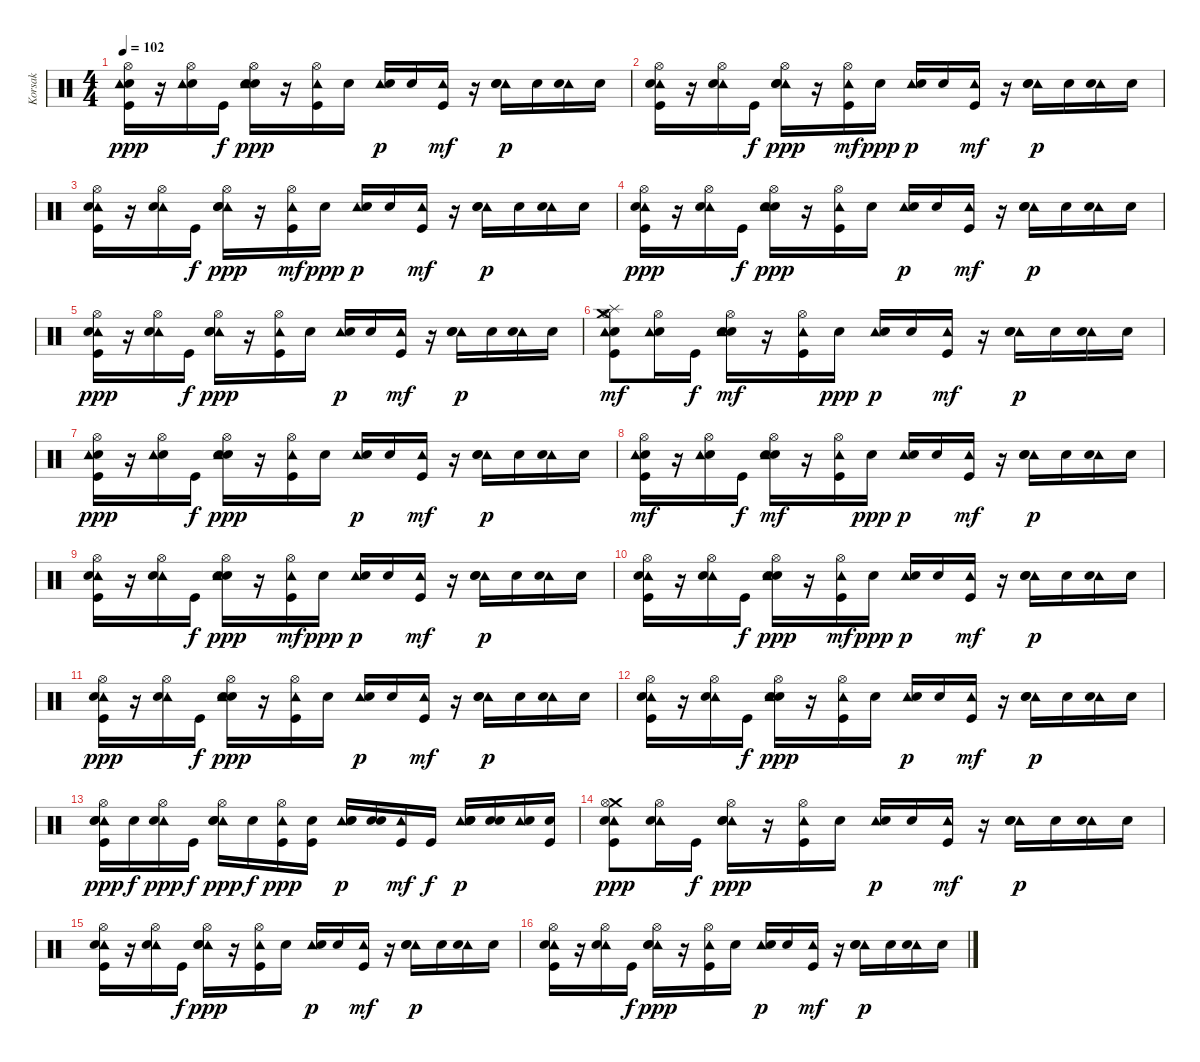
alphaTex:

\track ("Korsak" "Korsak") {instrument percussion}
\staff {score}
\articulation defaults
\ts (4 4)
\tempo 102
\clef neutral
\ks c
("Electric Snare (hit)" "Kick (hit)" "Tambourine (hit)" "Hi-Hat (open)").16{dy ppp} r.16 ("Electric Snare (hit)" "Tambourine (hit)" "Hi-Hat (open)").16 "Kick (hit)".16{dy f} ("Electric Snare (hit)" "Snare (hit) 2" "Tambourine (hit)" "Hi-Hat (open)").16{dy ppp} r.16 ("Kick (hit)" "Tambourine (hit)" "Hi-Hat (open)").16 "Electric Snare (hit)".16 ("Tambourine (hit)" "Electric Snare (hit)").16{dy p} "Electric Snare (hit)".16 ("Kick (hit)" "Tambourine (hit)").16{dy mf} r.16 ("Tambourine (hit)" "Electric Snare (hit)" "Snare (hit) 2").16{dy p} "Electric Snare (hit)".16 ("Tambourine (hit)" "Electric Snare (hit)").16 "Electric Snare (hit)".16 |
("Hi-Hat (open)" "Tambourine (hit)" "Electric Snare (hit)" "Kick (hit)").16 r.16 ("Hi-Hat (open)" "Tambourine (hit)" "Electric Snare (hit)").16 "Kick (hit)".16{dy f} ("Hi-Hat (open)" "Tambourine (hit)" "Electric Snare (hit)" "Snare (hit) 2").16{dy ppp} r.16 ("Hi-Hat (open)" "Tambourine (hit)" "Kick (hit)").16{dy mf} "Electric Snare (hit)".16{dy ppp} ("Tambourine (hit)" "Electric Snare (hit)").16{dy p} "Electric Snare (hit)".16 ("Tambourine (hit)" "Kick (hit)").16{dy mf} r.16 ("Tambourine (hit)" "Electric Snare (hit)" "Snare (hit) 2").16{dy p} "Electric Snare (hit)".16 ("Tambourine (hit)" "Electric Snare (hit)").16 "Electric Snare (hit)".16 |
("Hi-Hat (open)" "Tambourine (hit)" "Kick (hit)" "Electric Snare (hit)").16 r.16 ("Hi-Hat (open)" "Tambourine (hit)" "Electric Snare (hit)").16 "Kick (hit)".16{dy f} ("Hi-Hat (open)" "Tambourine (hit)" "Snare (hit) 2" "Electric Snare (hit)").16{dy ppp} r.16 ("Hi-Hat (open)" "Tambourine (hit)" "Kick (hit)").16{dy mf} "Electric Snare (hit)".16{dy ppp} ("Tambourine (hit)" "Electric Snare (hit)").16{dy p} "Electric Snare (hit)".16 ("Tambourine (hit)" "Kick (hit)").16{dy mf} r.16 ("Tambourine (hit)" "Electric Snare (hit)" "Snare (hit) 2").16{dy p} "Electric Snare (hit)".16 ("Tambourine (hit)" "Electric Snare (hit)").16 "Electric Snare (hit)".16 |
("Kick (hit)" "Tambourine (hit)" "Electric Snare (hit)" "Hi-Hat (open)").16{dy ppp} r.16 ("Tambourine (hit)" "Electric Snare (hit)" "Hi-Hat (open)").16 "Kick (hit)".16{dy f} ("Snare (hit) 2" "Tambourine (hit)" "Electric Snare (hit)" "Hi-Hat (open)").16{dy ppp} r.16 ("Kick (hit)" "Tambourine (hit)" "Hi-Hat (open)").16 "Electric Snare (hit)".16 ("Tambourine (hit)" "Electric Snare (hit)").16{dy p} "Electric Snare (hit)".16 ("Kick (hit)" "Tambourine (hit)").16{dy mf} r.16 ("Tambourine (hit)" "Electric Snare (hit)" "Snare (hit) 2").16{dy p} "Electric Snare (hit)".16 ("Tambourine (hit)" "Electric Snare (hit)").16 "Electric Snare (hit)".16 |
("Tambourine (hit)" "Kick (hit)" "Electric Snare (hit)" "Hi-Hat (open)").16{dy ppp} r.16 ("Tambourine (hit)" "Electric Snare (hit)" "Hi-Hat (open)").16 "Kick (hit)".16{dy f} ("Tambourine (hit)" "Snare (hit) 2" "Electric Snare (hit)" "Hi-Hat (open)").16{dy ppp} r.16 ("Tambourine (hit)" "Kick (hit)" "Hi-Hat (open)").16 "Electric Snare (hit)".16 ("Tambourine (hit)" "Electric Snare (hit)").16{dy p} "Electric Snare (hit)".16 ("Tambourine (hit)" "Kick (hit)").16{dy mf} r.16 ("Tambourine (hit)" "Electric Snare (hit)" "Snare (hit) 2").16{dy p} "Electric Snare (hit)".16 ("Tambourine (hit)" "Electric Snare (hit)").16 "Electric Snare (hit)".16 |
("Splash (hit)" "Crash medium (hit)" "Kick (hit)" "Hi-Hat (open)" "Electric Snare (hit)" "Tambourine (hit)").8{dy mf} ("Hi-Hat (open)" "Electric Snare (hit)" "Tambourine (hit)").16 "Kick (hit)".16{dy f} ("Snare (hit) 2" "Hi-Hat (open)" "Electric Snare (hit)" "Tambourine (hit)").16{dy mf} r.16 ("Kick (hit)" "Hi-Hat (open)" "Tambourine (hit)").16 "Electric Snare (hit)".16{dy ppp} ("Tambourine (hit)" "Electric Snare (hit)").16{dy p} "Electric Snare (hit)".16 ("Kick (hit)" "Tambourine (hit)").16{dy mf} r.16 ("Tambourine (hit)" "Electric Snare (hit)" "Snare (hit) 2").16{dy p} "Electric Snare (hit)".16 ("Tambourine (hit)" "Electric Snare (hit)").16 "Electric Snare (hit)".16 |
("Kick (hit)" "Electric Snare (hit)" "Tambourine (hit)" "Hi-Hat (open)").16{dy ppp} r.16 ("Electric Snare (hit)" "Tambourine (hit)" "Hi-Hat (open)").16 "Kick (hit)".16{dy f} ("Snare (hit) 2" "Electric Snare (hit)" "Tambourine (hit)" "Hi-Hat (open)").16{dy ppp} r.16 ("Kick (hit)" "Tambourine (hit)" "Hi-Hat (open)").16 "Electric Snare (hit)".16 ("Tambourine (hit)" "Electric Snare (hit)").16{dy p} "Electric Snare (hit)".16 ("Kick (hit)" "Tambourine (hit)").16{dy mf} r.16 ("Tambourine (hit)" "Electric Snare (hit)" "Snare (hit) 2").16{dy p} "Electric Snare (hit)".16 ("Tambourine (hit)" "Electric Snare (hit)").16 "Electric Snare (hit)".16 |
("Kick (hit)" "Hi-Hat (open)" "Electric Snare (hit)" "Tambourine (hit)").16{dy mf} r.16 ("Hi-Hat (open)" "Electric Snare (hit)" "Tambourine (hit)").16 "Kick (hit)".16{dy f} ("Snare (hit) 2" "Hi-Hat (open)" "Electric Snare (hit)" "Tambourine (hit)").16{dy mf} r.16 ("Kick (hit)" "Hi-Hat (open)" "Tambourine (hit)").16 "Electric Snare (hit)".16{dy ppp} ("Tambourine (hit)" "Electric Snare (hit)").16{dy p} "Electric Snare (hit)".16 ("Kick (hit)" "Tambourine (hit)").16{dy mf} r.16 ("Tambourine (hit)" "Electric Snare (hit)" "Snare (hit) 2").16{dy p} "Electric Snare (hit)".16 ("Tambourine (hit)" "Electric Snare (hit)").16 "Electric Snare (hit)".16 |
("Hi-Hat (open)" "Kick (hit)" "Tambourine (hit)" "Electric Snare (hit)").16 r.16 ("Hi-Hat (open)" "Tambourine (hit)" "Electric Snare (hit)").16 "Kick (hit)".16{dy f} ("Hi-Hat (open)" "Snare (hit) 2" "Tambourine (hit)" "Electric Snare (hit)").16{dy ppp} r.16 ("Hi-Hat (open)" "Kick (hit)" "Tambourine (hit)").16{dy mf} "Electric Snare (hit)".16{dy ppp} ("Tambourine (hit)" "Electric Snare (hit)").16{dy p} "Electric Snare (hit)".16 ("Kick (hit)" "Tambourine (hit)").16{dy mf} r.16 ("Tambourine (hit)" "Electric Snare (hit)" "Snare (hit) 2").16{dy p} "Electric Snare (hit)".16 ("Tambourine (hit)" "Electric Snare (hit)").16 "Electric Snare (hit)".16 |
("Kick (hit)" "Hi-Hat (open)" "Tambourine (hit)" "Electric Snare (hit)").16 r.16 ("Hi-Hat (open)" "Tambourine (hit)" "Electric Snare (hit)").16 "Kick (hit)".16{dy f} ("Snare (hit) 2" "Hi-Hat (open)" "Tambourine (hit)" "Electric Snare (hit)").16{dy ppp} r.16 ("Kick (hit)" "Hi-Hat (open)" "Tambourine (hit)").16{dy mf} "Electric Snare (hit)".16{dy ppp} ("Tambourine (hit)" "Electric Snare (hit)").16{dy p} "Electric Snare (hit)".16 ("Kick (hit)" "Tambourine (hit)").16{dy mf} r.16 ("Tambourine (hit)" "Electric Snare (hit)" "Snare (hit) 2").16{dy p} "Electric Snare (hit)".16 ("Tambourine (hit)" "Electric Snare (hit)").16 "Electric Snare (hit)".16 |
("Kick (hit)" "Tambourine (hit)" "Electric Snare (hit)" "Hi-Hat (open)").16{dy ppp} r.16 ("Tambourine (hit)" "Electric Snare (hit)" "Hi-Hat (open)").16 "Kick (hit)".16{dy f} ("Snare (hit) 2" "Tambourine (hit)" "Electric Snare (hit)" "Hi-Hat (open)").16{dy ppp} r.16 ("Kick (hit)" "Tambourine (hit)" "Hi-Hat (open)").16 "Electric Snare (hit)".16 ("Tambourine (hit)" "Electric Snare (hit)").16{dy p} "Electric Snare (hit)".16 ("Kick (hit)" "Tambourine (hit)").16{dy mf} r.16 ("Tambourine (hit)" "Electric Snare (hit)" "Snare (hit) 2").16{dy p} "Electric Snare (hit)".16 ("Tambourine (hit)" "Electric Snare (hit)").16 "Electric Snare (hit)".16 |
("Kick (hit)" "Tambourine (hit)" "Hi-Hat (open)" "Electric Snare (hit)").16 r.16 ("Tambourine (hit)" "Hi-Hat (open)" "Electric Snare (hit)").16 "Kick (hit)".16{dy f} ("Snare (hit) 2" "Tambourine (hit)" "Hi-Hat (open)" "Electric Snare (hit)").16{dy ppp} r.16 ("Kick (hit)" "Tambourine (hit)" "Hi-Hat (open)").16 "Electric Snare (hit)".16 ("Tambourine (hit)" "Electric Snare (hit)").16{dy p} "Electric Snare (hit)".16 ("Kick (hit)" "Tambourine (hit)").16{dy mf} r.16 ("Tambourine (hit)" "Electric Snare (hit)" "Snare (hit) 2").16{dy p} "Electric Snare (hit)".16 ("Tambourine (hit)" "Electric Snare (hit)").16 "Electric Snare (hit)".16 |
("Tambourine (hit)" "Kick (hit)" "Electric Snare (hit)" "Hi-Hat (open)" "Snare (hit) 2").16{dy ppp} "Snare (hit) 2".16{dy f} ("Tambourine (hit)" "Electric Snare (hit)" "Hi-Hat (open)").16{dy ppp} "Kick (hit)".16{dy f} ("Tambourine (hit)" "Snare (hit) 2" "Electric Snare (hit)" "Hi-Hat (open)").16{dy ppp} "Snare (hit) 2".16{dy f} ("Tambourine (hit)" "Kick (hit)" "Hi-Hat (open)").16{dy ppp} ("Kick (hit)" "Electric Snare (hit)").16 ("Tambourine (hit)" "Snare (hit) 2" "Electric Snare (hit)").16{dy p} ("Snare (hit) 2" "Electric Snare (hit)").16 ("Tambourine (hit)" "Kick (hit)").16{dy mf} "Kick (hit)".16{dy f} ("Tambourine (hit)" "Snare (hit) 2" "Electric Snare (hit)" "Snare (hit) 2").16{dy p} ("Snare (hit) 2" "Electric Snare (hit)").16 ("Tambourine (hit)" "Electric Snare (hit)").16 ("Kick (hit)" "Electric Snare (hit)").16 |
("Crash medium (hit)" "Tambourine (hit)" "Kick (hit)" "Electric Snare (hit)" "Hi-Hat (open)").8{dy ppp} ("Tambourine (hit)" "Electric Snare (hit)" "Hi-Hat (open)").16 "Kick (hit)".16{dy f} ("Tambourine (hit)" "Snare (hit) 2" "Electric Snare (hit)" "Hi-Hat (open)").16{dy ppp} r.16 ("Tambourine (hit)" "Kick (hit)" "Hi-Hat (open)").16 "Electric Snare (hit)".16 ("Tambourine (hit)" "Electric Snare (hit)").16{dy p} "Electric Snare (hit)".16 ("Tambourine (hit)" "Kick (hit)").16{dy mf} r.16 ("Tambourine (hit)" "Electric Snare (hit)" "Snare (hit) 2").16{dy p} "Electric Snare (hit)".16 ("Tambourine (hit)" "Electric Snare (hit)").16 "Electric Snare (hit)".16 |
("Tambourine (hit)" "Hi-Hat (open)" "Electric Snare (hit)" "Kick (hit)").16 r.16 ("Tambourine (hit)" "Hi-Hat (open)" "Electric Snare (hit)").16 "Kick (hit)".16{dy f} ("Tambourine (hit)" "Hi-Hat (open)" "Electric Snare (hit)" "Snare (hit) 2").16{dy ppp} r.16 ("Tambourine (hit)" "Hi-Hat (open)" "Kick (hit)").16 "Electric Snare (hit)".16 ("Tambourine (hit)" "Electric Snare (hit)").16{dy p} "Electric Snare (hit)".16 ("Tambourine (hit)" "Kick (hit)").16{dy mf} r.16 ("Tambourine (hit)" "Electric Snare (hit)" "Snare (hit) 2").16{dy p} "Electric Snare (hit)".16 ("Tambourine (hit)" "Electric Snare (hit)").16 "Electric Snare (hit)".16 |
("Tambourine (hit)" "Hi-Hat (open)" "Electric Snare (hit)" "Kick (hit)").16 r.16 ("Tambourine (hit)" "Hi-Hat (open)" "Electric Snare (hit)").16 "Kick (hit)".16{dy f} ("Tambourine (hit)" "Hi-Hat (open)" "Electric Snare (hit)" "Snare (hit) 2").16{dy ppp} r.16 ("Tambourine (hit)" "Hi-Hat (open)" "Kick (hit)").16 "Electric Snare (hit)".16 ("Tambourine (hit)" "Electric Snare (hit)").16{dy p} "Electric Snare (hit)".16 ("Tambourine (hit)" "Kick (hit)").16{dy mf} r.16 ("Tambourine (hit)" "Electric Snare (hit)" "Snare (hit) 2").16{dy p} "Electric Snare (hit)".16 ("Tambourine (hit)" "Electric Snare (hit)").16 "Electric Snare (hit)".16
